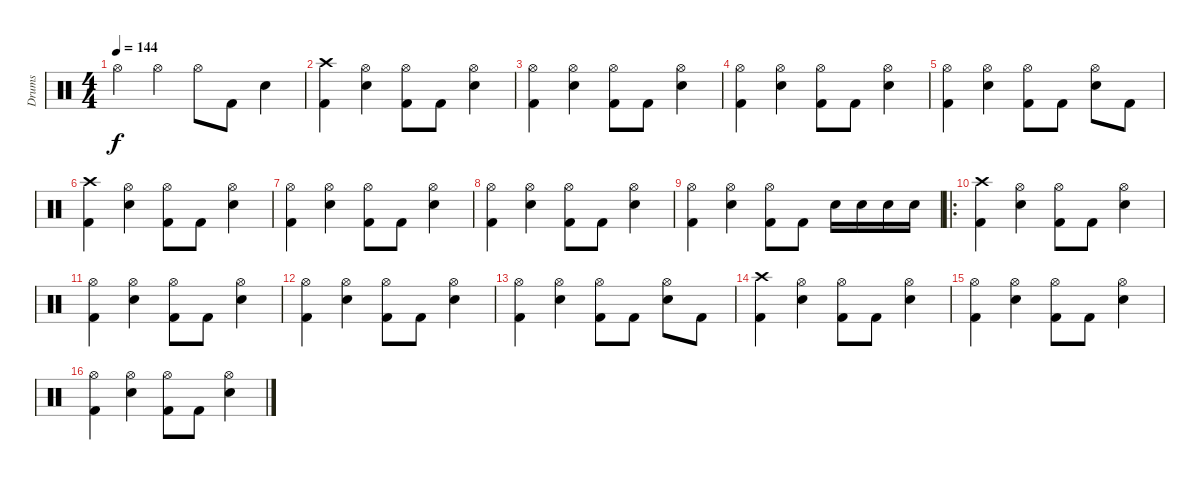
\track ("Drums" "Drums") {instrument percussion}
\staff {score}
\articulation defaults
\ts (4 4)
\tempo 144
\clef neutral
\ks c "Hi-Hat (open)".4{dy f} "Hi-Hat (open)".4 "Hi-Hat (open)".8 "Kick (hit) 2".8 "Snare (hit) 2".4
|
("Kick (hit) 2" "Crash high (hit)").4 ("Snare (hit) 2" "Hi-Hat (open)").4 ("Kick (hit) 2" "Hi-Hat (open)").8 "Kick (hit) 2".8 ("Snare (hit) 2" "Hi-Hat (open)").4 |
("Kick (hit) 2" "Hi-Hat (open)").4 ("Snare (hit) 2" "Hi-Hat (open)").4 ("Kick (hit) 2" "Hi-Hat (open)").8 "Kick (hit) 2".8 ("Snare (hit) 2" "Hi-Hat (open)").4 |
("Kick (hit) 2" "Hi-Hat (open)").4 ("Snare (hit) 2" "Hi-Hat (open)").4 ("Kick (hit) 2" "Hi-Hat (open)").8 "Kick (hit) 2".8 ("Snare (hit) 2" "Hi-Hat (open)").4 |
("Kick (hit) 2" "Hi-Hat (open)").4 ("Snare (hit) 2" "Hi-Hat (open)").4 ("Kick (hit) 2" "Hi-Hat (open)").8 "Kick (hit) 2".8 ("Snare (hit) 2" "Hi-Hat (open)").8 "Kick (hit) 2".8 |
("Kick (hit) 2" "Crash high (hit)").4 ("Snare (hit) 2" "Hi-Hat (open)").4 ("Kick (hit) 2" "Hi-Hat (open)").8 "Kick (hit) 2".8 ("Snare (hit) 2" "Hi-Hat (open)").4 |
("Kick (hit) 2" "Hi-Hat (open)").4 ("Snare (hit) 2" "Hi-Hat (open)").4 ("Kick (hit) 2" "Hi-Hat (open)").8 "Kick (hit) 2".8 ("Snare (hit) 2" "Hi-Hat (open)").4 |
("Kick (hit) 2" "Hi-Hat (open)").4 ("Snare (hit) 2" "Hi-Hat (open)").4 ("Kick (hit) 2" "Hi-Hat (open)").8 "Kick (hit) 2".8 ("Snare (hit) 2" "Hi-Hat (open)").4 |
("Kick (hit) 2" "Hi-Hat (open)").4 ("Snare (hit) 2" "Hi-Hat (open)").4 ("Kick (hit) 2" "Hi-Hat (open)").8 "Kick (hit) 2".8 "Snare (hit) 2".16 "Snare (hit) 2".16 "Snare (hit) 2".16 "Snare (hit) 2".16 |
\ro
("Kick (hit) 2" "Crash high (hit)").4 ("Snare (hit) 2" "Hi-Hat (open)").4 ("Kick (hit) 2" "Hi-Hat (open)").8 "Kick (hit) 2".8 ("Snare (hit) 2" "Hi-Hat (open)").4 |
("Kick (hit) 2" "Hi-Hat (open)").4 ("Snare (hit) 2" "Hi-Hat (open)").4 ("Kick (hit) 2" "Hi-Hat (open)").8 "Kick (hit) 2".8 ("Snare (hit) 2" "Hi-Hat (open)").4 |
("Kick (hit) 2" "Hi-Hat (open)").4 ("Snare (hit) 2" "Hi-Hat (open)").4 ("Kick (hit) 2" "Hi-Hat (open)").8 "Kick (hit) 2".8 ("Snare (hit) 2" "Hi-Hat (open)").4 |
("Kick (hit) 2" "Hi-Hat (open)").4 ("Snare (hit) 2" "Hi-Hat (open)").4 ("Kick (hit) 2" "Hi-Hat (open)").8 "Kick (hit) 2".8 ("Snare (hit) 2" "Hi-Hat (open)").8 "Kick (hit) 2".8 |
("Kick (hit) 2" "Crash high (hit)").4 ("Snare (hit) 2" "Hi-Hat (open)").4 ("Kick (hit) 2" "Hi-Hat (open)").8 "Kick (hit) 2".8 ("Snare (hit) 2" "Hi-Hat (open)").4 |
("Kick (hit) 2" "Hi-Hat (open)").4 ("Snare (hit) 2" "Hi-Hat (open)").4 ("Kick (hit) 2" "Hi-Hat (open)").8 "Kick (hit) 2".8 ("Snare (hit) 2" "Hi-Hat (open)").4 |
("Kick (hit) 2" "Hi-Hat (open)").4 ("Snare (hit) 2" "Hi-Hat (open)").4 ("Kick (hit) 2" "Hi-Hat (open)").8 "Kick (hit) 2".8 ("Snare (hit) 2" "Hi-Hat (open)").4
